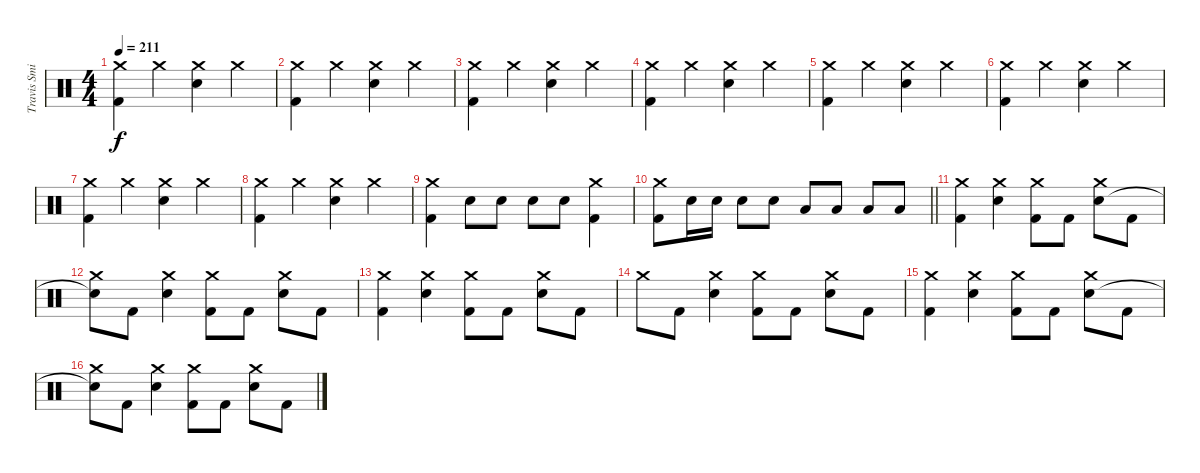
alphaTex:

\track ("Travis Smith" "Travis Smi") {instrument percussion}
\staff {score}
\articulation defaults
\ts (4 4)
\tempo 211
\clef neutral
\ks c
("Crash medium (hit)" "Kick (hit) 2").4{dy f} "Crash medium (hit)".4 ("Crash medium (hit)" "Electric Snare (hit)").4 "Crash medium (hit)".4 |
("Crash medium (hit)" "Kick (hit) 2").4 "Crash medium (hit)".4 ("Crash medium (hit)" "Electric Snare (hit)").4 "Crash medium (hit)".4 |
("Crash medium (hit)" "Kick (hit) 2").4 "Crash medium (hit)".4 ("Crash medium (hit)" "Electric Snare (hit)").4 "Crash medium (hit)".4 |
("Crash medium (hit)" "Kick (hit) 2").4 "Crash medium (hit)".4 ("Crash medium (hit)" "Electric Snare (hit)").4 "Crash medium (hit)".4 |
("Crash medium (hit)" "Kick (hit) 2").4 "Crash medium (hit)".4 ("Crash medium (hit)" "Electric Snare (hit)").4 "Crash medium (hit)".4 |
("Crash medium (hit)" "Kick (hit) 2").4 "Crash medium (hit)".4 ("Crash medium (hit)" "Electric Snare (hit)").4 "Crash medium (hit)".4 |
("Crash medium (hit)" "Kick (hit) 2").4 "Crash medium (hit)".4 ("Crash medium (hit)" "Electric Snare (hit)").4 "Crash medium (hit)".4 |
("Crash medium (hit)" "Kick (hit) 2").4 "Crash medium (hit)".4 ("Crash medium (hit)" "Electric Snare (hit)").4 "Crash medium (hit)".4 |
("Crash medium (hit)" "Kick (hit) 2").4 "Electric Snare (hit)".8 "Electric Snare (hit)".8 "Electric Snare (hit)".8 "Electric Snare (hit)".8 ("Crash medium (hit)" "Kick (hit) 2").4 |
\barLineRight lightlight
("Crash medium (hit)" "Kick (hit) 2").8 "Electric Snare (hit)".16 "Electric Snare (hit)".16 "Electric Snare (hit)".8 "Electric Snare (hit)".8 "Low Tom (hit)".8 "Low Tom (hit)".8 "Low Floor Tom (hit)".8 "Low Floor Tom (hit)".8 |
("Crash medium (hit)" "Kick (hit) 2").4 ("Crash medium (hit)" "Electric Snare (hit)").4 ("Crash medium (hit)" "Kick (hit) 2").8 "Kick (hit) 2".8 ("Crash medium (hit)" "Electric Snare (hit)").8 "Kick (hit) 2".8 |
("Crash medium (hit)" "Snare (hit)"{t}).8 "Kick (hit) 2".8 ("Crash medium (hit)" "Electric Snare (hit)").4 ("Crash medium (hit)" "Kick (hit) 2").8 "Kick (hit) 2".8 ("Crash medium (hit)" "Electric Snare (hit)").8 "Kick (hit) 2".8 |
("Crash medium (hit)" "Kick (hit) 2").4 ("Crash medium (hit)" "Electric Snare (hit)").4 ("Crash medium (hit)" "Kick (hit) 2").8 "Kick (hit) 2".8 ("Crash medium (hit)" "Electric Snare (hit)").8 "Kick (hit) 2".8 |
"Crash medium (hit)".8 "Kick (hit) 2".8 ("Crash medium (hit)" "Electric Snare (hit)").4 ("Crash medium (hit)" "Kick (hit) 2").8 "Kick (hit) 2".8 ("Crash medium (hit)" "Electric Snare (hit)").8 "Kick (hit) 2".8 |
("Crash medium (hit)" "Kick (hit) 2").4 ("Crash medium (hit)" "Electric Snare (hit)").4 ("Crash medium (hit)" "Kick (hit) 2").8 "Kick (hit) 2".8 ("Crash medium (hit)" "Electric Snare (hit)").8 "Kick (hit) 2".8 |
("Crash medium (hit)" "Snare (hit)"{t}).8 "Kick (hit) 2".8 ("Crash medium (hit)" "Electric Snare (hit)").4 ("Crash medium (hit)" "Kick (hit) 2").8 "Kick (hit) 2".8 ("Crash medium (hit)" "Electric Snare (hit)").8 "Kick (hit) 2".8
